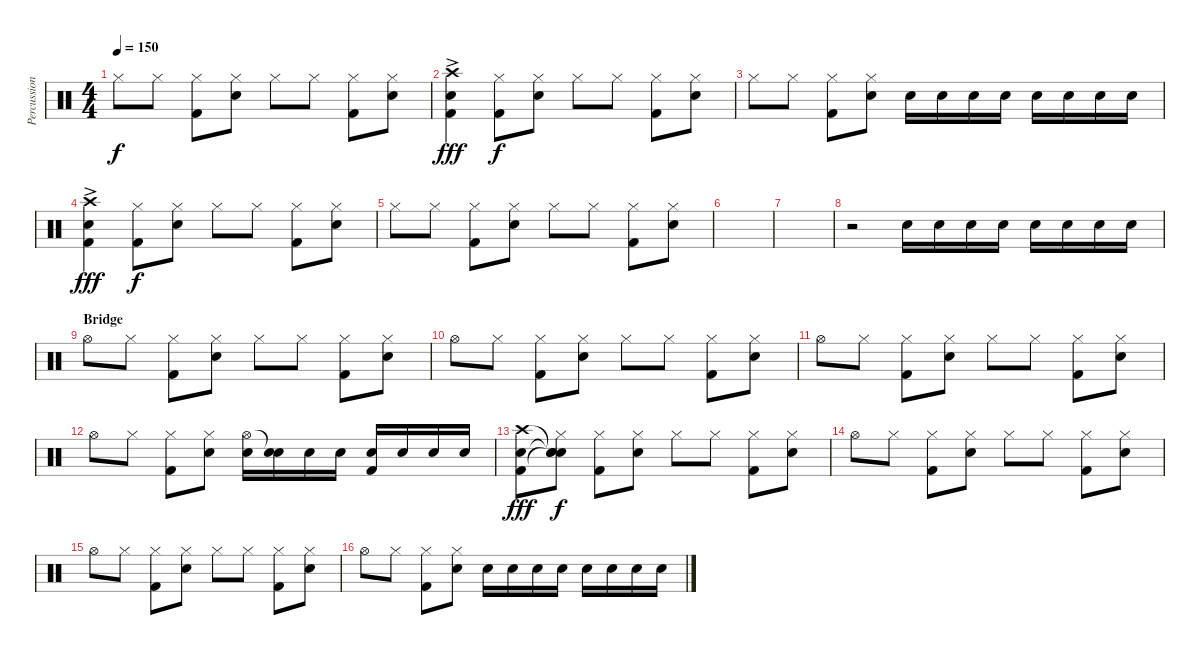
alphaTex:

\track ("Percussion" "Percussion") {instrument percussion}
\staff {score}
\articulation defaults
\ts (4 4)
\tempo 150
\clef neutral
\ks c "Hi-Hat (closed)".8{dy f} "Hi-Hat (closed)".8
("Hi-Hat (closed)" "Kick (hit) 2").8 ("Hi-Hat (closed)" "Electric Snare (hit)").8 "Hi-Hat (closed)".8 "Hi-Hat (closed)".8 ("Hi-Hat (closed)" "Kick (hit) 2").8 ("Hi-Hat (closed)" "Electric Snare (hit)").8 |
("Crash high (hit)"{ac} "Kick (hit) 2"{ac} "Electric Snare (hit)"{ac}).4{dy fff} ("Hi-Hat (closed)" "Kick (hit) 2").8{dy f} ("Hi-Hat (closed)" "Electric Snare (hit)").8 "Hi-Hat (closed)".8 "Hi-Hat (closed)".8 ("Hi-Hat (closed)" "Kick (hit) 2").8 ("Hi-Hat (closed)" "Electric Snare (hit)").8 |
"Hi-Hat (closed)".8 "Hi-Hat (closed)".8 ("Hi-Hat (closed)" "Kick (hit) 2").8 ("Hi-Hat (closed)" "Electric Snare (hit)").8 "Electric Snare (hit)".16 "Electric Snare (hit)".16 "Electric Snare (hit)".16 "Electric Snare (hit)".16 "Electric Snare (hit)".16 "Electric Snare (hit)".16 "Electric Snare (hit)".16 "Electric Snare (hit)".16 |
("Crash high (hit)"{ac} "Kick (hit) 2"{ac} "Electric Snare (hit)"{ac}).4{dy fff} ("Hi-Hat (closed)" "Kick (hit) 2").8{dy f} ("Hi-Hat (closed)" "Electric Snare (hit)").8 "Hi-Hat (closed)".8 "Hi-Hat (closed)".8 ("Hi-Hat (closed)" "Kick (hit) 2").8 ("Hi-Hat (closed)" "Electric Snare (hit)").8 |
"Hi-Hat (closed)".8 "Hi-Hat (closed)".8 ("Hi-Hat (closed)" "Kick (hit) 2").8 ("Hi-Hat (closed)" "Electric Snare (hit)").8 "Hi-Hat (closed)".8 "Hi-Hat (closed)".8 ("Hi-Hat (closed)" "Kick (hit) 2").8 ("Hi-Hat (closed)" "Electric Snare (hit)").8 |
|
|
r.2 "Electric Snare (hit)".16 "Electric Snare (hit)".16 "Electric Snare (hit)".16 "Electric Snare (hit)".16 "Electric Snare (hit)".16 "Electric Snare (hit)".16 "Electric Snare (hit)".16 "Electric Snare (hit)".16 |
\section ("" "Bridge")
"Hi-Hat (open)".8 "Hi-Hat (closed)".8 ("Hi-Hat (closed)" "Kick (hit) 2").8 ("Hi-Hat (closed)" "Snare (hit) 2").8 "Hi-Hat (closed)".8 "Hi-Hat (closed)".8 ("Hi-Hat (closed)" "Kick (hit) 2").8 ("Hi-Hat (closed)" "Snare (hit) 2").8 |
"Hi-Hat (open)".8 "Hi-Hat (closed)".8 ("Hi-Hat (closed)" "Kick (hit) 2").8 ("Hi-Hat (closed)" "Snare (hit) 2").8 "Hi-Hat (closed)".8 "Hi-Hat (closed)".8 ("Hi-Hat (closed)" "Kick (hit) 2").8 ("Hi-Hat (closed)" "Snare (hit) 2").8 |
"Hi-Hat (open)".8 "Hi-Hat (closed)".8 ("Hi-Hat (closed)" "Kick (hit) 2").8 ("Hi-Hat (closed)" "Snare (hit) 2").8 "Hi-Hat (closed)".8 "Hi-Hat (closed)".8 ("Hi-Hat (closed)" "Kick (hit) 2").8 ("Hi-Hat (closed)" "Snare (hit) 2").8 |
"Hi-Hat (open)".8 "Hi-Hat (closed)".8 ("Hi-Hat (closed)" "Kick (hit) 2").8 ("Hi-Hat (closed)" "Snare (hit) 2").8 ("Electric Snare (hit)" "Hi-Hat (open)").16 ("Electric Snare (hit)" "Snare (hit)"{t}).16 "Electric Snare (hit)".16 "Electric Snare (hit)".16 ("Electric Snare (hit)" "Kick (hit) 2").16 "Electric Snare (hit)".16 "Electric Snare (hit)".16 "Electric Snare (hit)".16 |
("Crash high (hit)" "Snare (hit) 2" "Kick (hit) 2").8{dy fff} ("Snare (hit)"{t} "Snare (hit)"{t} "Snare (hit)"{t} "Hi-Hat (closed)").8{dy f} ("Hi-Hat (closed)" "Kick (hit) 2").8 ("Hi-Hat (closed)" "Snare (hit) 2").8 "Hi-Hat (closed)".8 "Hi-Hat (closed)".8 ("Hi-Hat (closed)" "Kick (hit) 2").8 ("Hi-Hat (closed)" "Snare (hit) 2").8 |
"Hi-Hat (open)".8 "Hi-Hat (closed)".8 ("Hi-Hat (closed)" "Kick (hit) 2").8 ("Hi-Hat (closed)" "Snare (hit) 2").8 "Hi-Hat (closed)".8 "Hi-Hat (closed)".8 ("Hi-Hat (closed)" "Kick (hit) 2").8 ("Hi-Hat (closed)" "Snare (hit) 2").8 |
"Hi-Hat (open)".8 "Hi-Hat (closed)".8 ("Hi-Hat (closed)" "Kick (hit) 2").8 ("Hi-Hat (closed)" "Snare (hit) 2").8 "Hi-Hat (closed)".8 "Hi-Hat (closed)".8 ("Hi-Hat (closed)" "Kick (hit) 2").8 ("Hi-Hat (closed)" "Snare (hit) 2").8 |
"Hi-Hat (open)".8 "Hi-Hat (closed)".8 ("Hi-Hat (closed)" "Kick (hit) 2").8 ("Hi-Hat (closed)" "Snare (hit) 2").8 "Electric Snare (hit)".16 "Electric Snare (hit)".16 "Electric Snare (hit)".16 "Electric Snare (hit)".16 "Electric Snare (hit)".16 "Electric Snare (hit)".16 "Electric Snare (hit)".16 "Electric Snare (hit)".16
